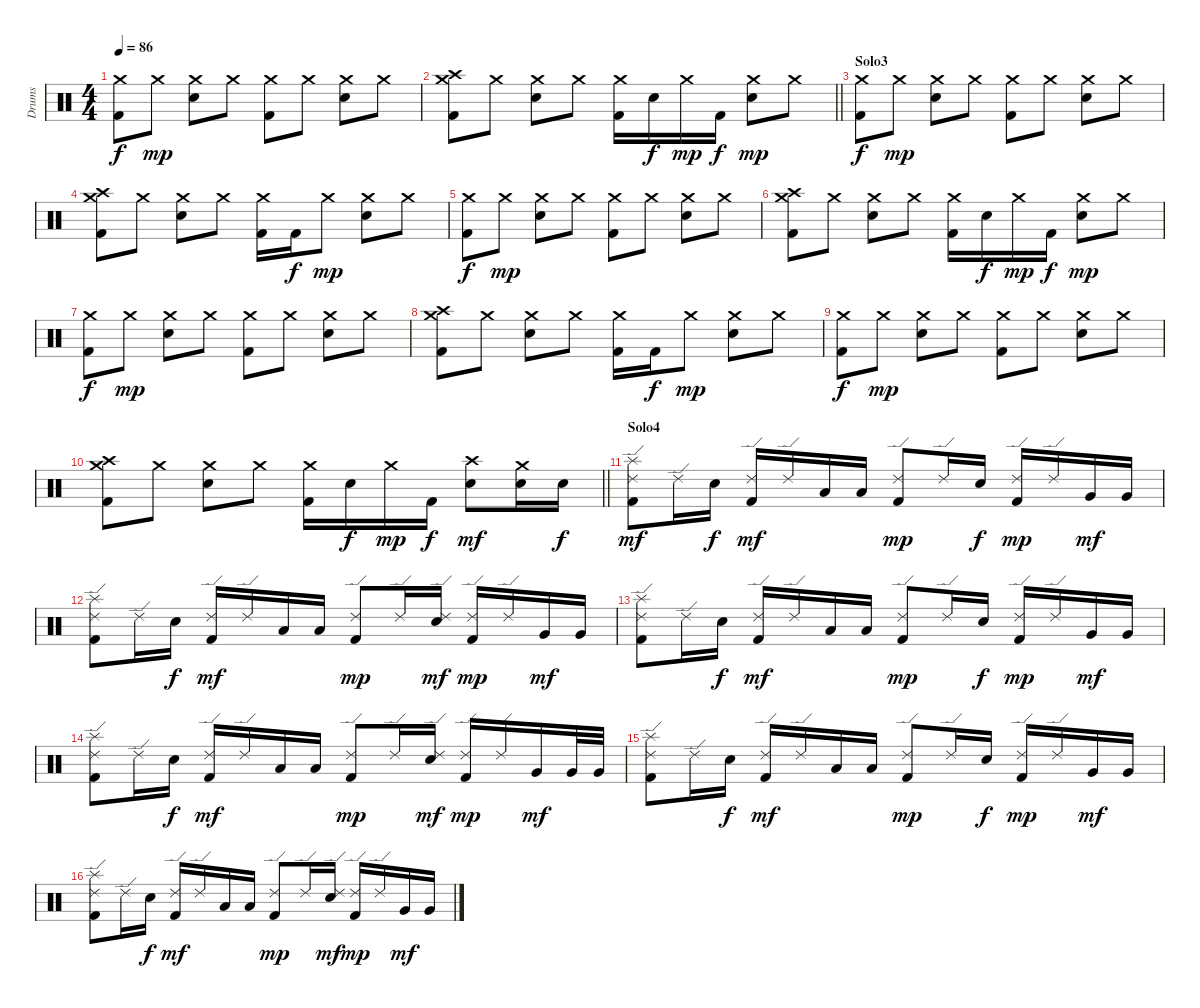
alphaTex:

\track ("Drums" "Drums") {instrument percussion}
\staff {score}
\articulation defaults
\ts (4 4)
\tempo 86
\clef neutral
\ks c
("Crash medium (hit)" "Kick (hit) 2").8{dy f} "Crash medium (hit)".8{dy mp} ("Crash medium (hit)" "Electric Snare (hit)").8 "Crash medium (hit)".8 ("Crash medium (hit)" "Kick (hit) 2").8 "Crash medium (hit)".8 ("Crash medium (hit)" "Electric Snare (hit)").8 "Crash medium (hit)".8 |
\barLineRight lightlight
("Crash medium (hit)" "Crash high (hit)" "Kick (hit) 2").8 "Crash medium (hit)".8 ("Crash medium (hit)" "Electric Snare (hit)").8 "Crash medium (hit)".8 ("Crash medium (hit)" "Kick (hit) 2").16 "Electric Snare (hit)".16{dy f} "Crash medium (hit)".16{dy mp} "Kick (hit) 2".16{dy f} ("Crash medium (hit)" "Electric Snare (hit)").8{dy mp} "Crash medium (hit)".8 |
\section ("" "Solo3")
("Crash medium (hit)" "Kick (hit) 2").8{dy f} "Crash medium (hit)".8{dy mp} ("Crash medium (hit)" "Electric Snare (hit)").8 "Crash medium (hit)".8 ("Crash medium (hit)" "Kick (hit) 2").8 "Crash medium (hit)".8 ("Crash medium (hit)" "Electric Snare (hit)").8 "Crash medium (hit)".8 |
("Crash medium (hit)" "Crash high (hit)" "Kick (hit) 2").8 "Crash medium (hit)".8 ("Crash medium (hit)" "Electric Snare (hit)").8 "Crash medium (hit)".8 ("Crash medium (hit)" "Kick (hit) 2").16 "Kick (hit) 2".16{dy f} "Crash medium (hit)".8{dy mp} ("Crash medium (hit)" "Electric Snare (hit)").8 "Crash medium (hit)".8 |
("Crash medium (hit)" "Kick (hit) 2").8{dy f} "Crash medium (hit)".8{dy mp} ("Crash medium (hit)" "Electric Snare (hit)").8 "Crash medium (hit)".8 ("Crash medium (hit)" "Kick (hit) 2").8 "Crash medium (hit)".8 ("Crash medium (hit)" "Electric Snare (hit)").8 "Crash medium (hit)".8 |
("Crash medium (hit)" "Crash high (hit)" "Kick (hit) 2").8 "Crash medium (hit)".8 ("Crash medium (hit)" "Electric Snare (hit)").8 "Crash medium (hit)".8 ("Crash medium (hit)" "Kick (hit) 2").16 "Electric Snare (hit)".16{dy f} "Crash medium (hit)".16{dy mp} "Kick (hit) 2".16{dy f} ("Crash medium (hit)" "Electric Snare (hit)").8{dy mp} "Crash medium (hit)".8 |
("Crash medium (hit)" "Kick (hit) 2").8{dy f} "Crash medium (hit)".8{dy mp} ("Crash medium (hit)" "Electric Snare (hit)").8 "Crash medium (hit)".8 ("Crash medium (hit)" "Kick (hit) 2").8 "Crash medium (hit)".8 ("Crash medium (hit)" "Electric Snare (hit)").8 "Crash medium (hit)".8 |
("Crash medium (hit)" "Crash high (hit)" "Kick (hit) 2").8 "Crash medium (hit)".8 ("Crash medium (hit)" "Electric Snare (hit)").8 "Crash medium (hit)".8 ("Crash medium (hit)" "Kick (hit) 2").16 "Kick (hit) 2".16{dy f} "Crash medium (hit)".8{dy mp} ("Crash medium (hit)" "Electric Snare (hit)").8 "Crash medium (hit)".8 |
("Crash medium (hit)" "Kick (hit) 2").8{dy f} "Crash medium (hit)".8{dy mp} ("Crash medium (hit)" "Electric Snare (hit)").8 "Crash medium (hit)".8 ("Crash medium (hit)" "Kick (hit) 2").8 "Crash medium (hit)".8 ("Crash medium (hit)" "Electric Snare (hit)").8 "Crash medium (hit)".8 |
\barLineRight lightlight
("Crash medium (hit)" "Crash high (hit)" "Kick (hit) 2").8 "Crash medium (hit)".8 ("Crash medium (hit)" "Electric Snare (hit)").8 "Crash medium (hit)".8 ("Crash medium (hit)" "Kick (hit) 2").16 "Electric Snare (hit)".16{dy f} "Crash medium (hit)".16{dy mp} "Kick (hit) 2".16{dy f} ("Crash high (hit)" "Electric Snare (hit)").8{dy mf} ("Crash medium (hit)" "Electric Snare (hit)").16 "Electric Snare (hit)".16{dy f} |
\section ("" "Solo4")
("Ride (edge) 2" "Splash (hit)" "Kick (hit) 2").8{dy mf} "Ride (edge) 2".16 "Electric Snare (hit)".16{dy f} ("Ride (edge) 2" "Kick (hit) 2").16{dy mf} "Ride (edge) 2".16 "Low Tom (hit)".16 "Low Tom (hit)".16 ("Ride (edge) 2" "Kick (hit) 2").8{dy mp} "Ride (edge) 2".16 "Electric Snare (hit)".16{dy f} ("Ride (edge) 2" "Kick (hit) 2").16{dy mp} "Ride (edge) 2".16 "Very Low Tom (hit)".16{dy mf} "Very Low Tom (hit)".16 |
("Ride (edge) 2" "Splash (hit)" "Kick (hit) 2").8 "Ride (edge) 2".16 "Electric Snare (hit)".16{dy f} ("Ride (edge) 2" "Kick (hit) 2").16{dy mf} "Ride (edge) 2".16 "Low Tom (hit)".16 "Low Tom (hit)".16 ("Ride (edge) 2" "Kick (hit) 2").8{dy mp} "Ride (edge) 2".16 ("Ride (edge) 2" "Electric Snare (hit)").16{dy mf} ("Ride (edge) 2" "Kick (hit) 2").16{dy mp} "Ride (edge) 2".16 "Very Low Tom (hit)".16{dy mf} "Very Low Tom (hit)".16 |
("Ride (edge) 2" "Splash (hit)" "Kick (hit) 2").8 "Ride (edge) 2".16 "Electric Snare (hit)".16{dy f} ("Ride (edge) 2" "Kick (hit) 2").16{dy mf} "Ride (edge) 2".16 "Low Tom (hit)".16 "Low Tom (hit)".16 ("Ride (edge) 2" "Kick (hit) 2").8{dy mp} "Ride (edge) 2".16 "Electric Snare (hit)".16{dy f} ("Ride (edge) 2" "Kick (hit) 2").16{dy mp} "Ride (edge) 2".16 "Very Low Tom (hit)".16{dy mf} "Very Low Tom (hit)".16 |
("Ride (edge) 2" "Splash (hit)" "Kick (hit) 2").8 "Ride (edge) 2".16 "Electric Snare (hit)".16{dy f} ("Ride (edge) 2" "Kick (hit) 2").16{dy mf} "Ride (edge) 2".16 "Low Tom (hit)".16 "Low Tom (hit)".16 ("Ride (edge) 2" "Kick (hit) 2").8{dy mp} "Ride (edge) 2".16 ("Ride (edge) 2" "Electric Snare (hit)").16{dy mf} ("Ride (edge) 2" "Kick (hit) 2").16{dy mp} "Ride (edge) 2".16 "Very Low Tom (hit)".16{dy mf} "Very Low Tom (hit)".32 "Very Low Tom (hit)".32 |
("Ride (edge) 2" "Splash (hit)" "Kick (hit) 2").8 "Ride (edge) 2".16 "Electric Snare (hit)".16{dy f} ("Ride (edge) 2" "Kick (hit) 2").16{dy mf} "Ride (edge) 2".16 "Low Tom (hit)".16 "Low Tom (hit)".16 ("Ride (edge) 2" "Kick (hit) 2").8{dy mp} "Ride (edge) 2".16 "Electric Snare (hit)".16{dy f} ("Ride (edge) 2" "Kick (hit) 2").16{dy mp} "Ride (edge) 2".16 "Very Low Tom (hit)".16{dy mf} "Very Low Tom (hit)".16 |
("Ride (edge) 2" "Splash (hit)" "Kick (hit) 2").8 "Ride (edge) 2".16 "Electric Snare (hit)".16{dy f} ("Ride (edge) 2" "Kick (hit) 2").16{dy mf} "Ride (edge) 2".16 "Low Tom (hit)".16 "Low Tom (hit)".16 ("Ride (edge) 2" "Kick (hit) 2").8{dy mp} "Ride (edge) 2".16 ("Ride (edge) 2" "Electric Snare (hit)").16{dy mf} ("Ride (edge) 2" "Kick (hit) 2").16{dy mp} "Ride (edge) 2".16 "Very Low Tom (hit)".16{dy mf} "Very Low Tom (hit)".16
